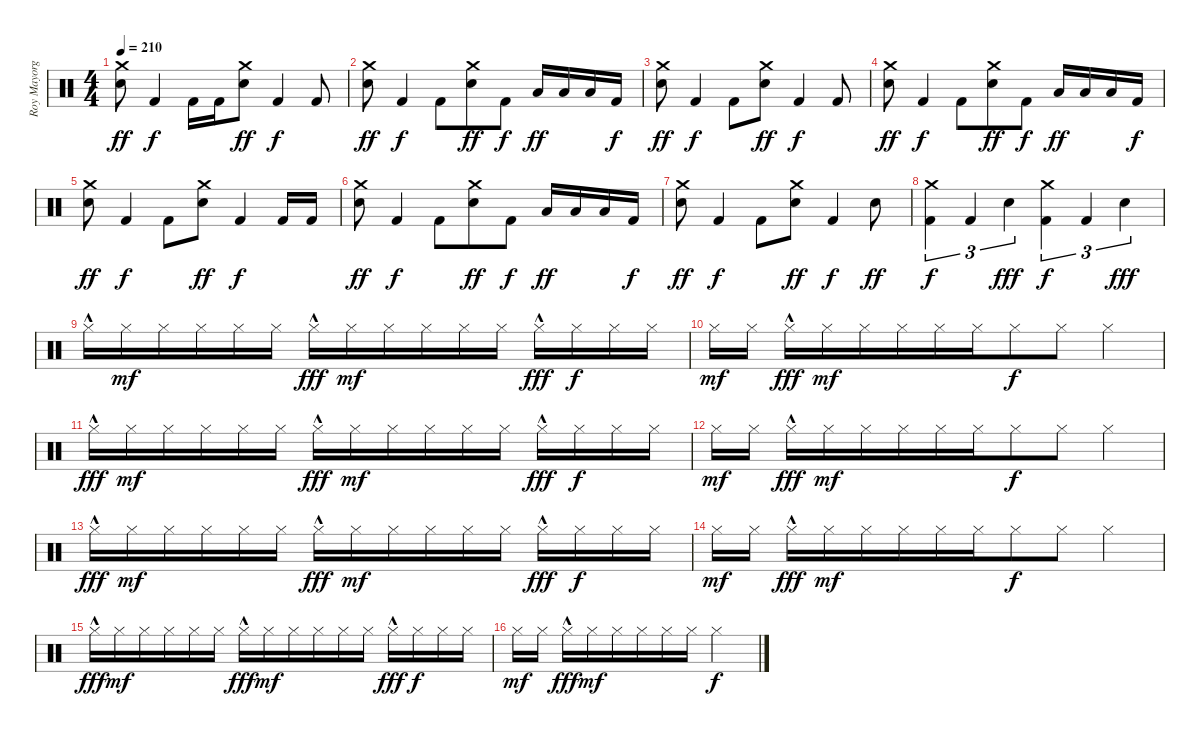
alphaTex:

\track ("Roy Mayorga" "Roy Mayorg") {instrument percussion}
\staff {score}
\articulation defaults
\ts (4 4)
\tempo 210
\clef neutral
\ks c
("Crash medium (hit)" "Electric Snare (hit)").8{dy ff} "Kick (hit) 2".4{dy f} "Kick (hit) 2".16 "Kick (hit) 2".16{beam merge} ("Crash medium (hit)" "Electric Snare (hit)").8{dy ff} "Kick (hit) 2".4{dy f} "Kick (hit) 2".8 |
("Crash medium (hit)" "Electric Snare (hit)").8{dy ff} "Kick (hit) 2".4{dy f} "Kick (hit) 2".8{beam merge} ("Crash medium (hit)" "Electric Snare (hit)").8{dy ff} "Kick (hit) 2".8{dy f} "Low Tom (hit)".16{dy ff} "Low Tom (hit)".16 "Low Floor Tom (hit)".16 "Kick (hit) 2".16{dy f} |
("Crash medium (hit)" "Electric Snare (hit)").8{dy ff} "Kick (hit) 2".4{dy f} "Kick (hit) 2".8{beam merge} ("Crash medium (hit)" "Electric Snare (hit)").8{dy ff} "Kick (hit) 2".4{dy f} "Kick (hit) 2".8 |
("Crash medium (hit)" "Electric Snare (hit)").8{dy ff} "Kick (hit) 2".4{dy f} "Kick (hit) 2".8{beam merge} ("Crash medium (hit)" "Electric Snare (hit)").8{dy ff} "Kick (hit) 2".8{dy f} "Low Tom (hit)".16{dy ff} "Low Tom (hit)".16 "Low Floor Tom (hit)".16 "Kick (hit) 2".16{dy f} |
("Crash medium (hit)" "Electric Snare (hit)").8{dy ff} "Kick (hit) 2".4{dy f} "Kick (hit) 2".8{beam merge} ("Crash medium (hit)" "Electric Snare (hit)").8{dy ff} "Kick (hit) 2".4{dy f} "Kick (hit) 2".16 "Kick (hit) 2".16 |
("Crash medium (hit)" "Electric Snare (hit)").8{dy ff} "Kick (hit) 2".4{dy f} "Kick (hit) 2".8{beam merge} ("Crash medium (hit)" "Electric Snare (hit)").8{dy ff} "Kick (hit) 2".8{dy f} "Low Tom (hit)".16{dy ff} "Low Tom (hit)".16 "Low Floor Tom (hit)".16 "Kick (hit) 2".16{dy f} |
("Crash medium (hit)" "Electric Snare (hit)").8{dy ff} "Kick (hit) 2".4{dy f} "Kick (hit) 2".8{beam merge} ("Crash medium (hit)" "Electric Snare (hit)").8{dy ff} "Kick (hit) 2".4{dy f} "Electric Snare (hit)".8{dy ff} |
("Crash medium (hit)" "Kick (hit) 2").4{tu (3 2) dy f} "Kick (hit) 2".4{tu (3 2)} "Electric Snare (hit)".4{tu (3 2) dy fff} ("Crash medium (hit)" "Kick (hit) 2").4{tu (3 2) dy f} "Kick (hit) 2".4{tu (3 2)} "Electric Snare (hit)".4{tu (3 2) dy fff} |
"Hi-Hat (closed)"{hac}.16 "Hi-Hat (closed)".16{dy mf} "Hi-Hat (closed)".16 "Hi-Hat (closed)".16{beam merge} "Hi-Hat (closed)".16 "Hi-Hat (closed)".16{beam split} "Hi-Hat (closed)"{hac}.16{dy fff} "Hi-Hat (closed)".16{dy mf beam merge} "Hi-Hat (closed)".16 "Hi-Hat (closed)".16 "Hi-Hat (closed)".16 "Hi-Hat (closed)".16{beam split} "Hi-Hat (closed)"{hac}.16{dy fff} "Hi-Hat (closed)".16{dy f} "Hi-Hat (closed)".16 "Hi-Hat (closed)".16 |
"Hi-Hat (closed)".16{dy mf} "Hi-Hat (closed)".16{beam split} "Hi-Hat (closed)"{hac}.16{dy fff} "Hi-Hat (closed)".16{dy mf beam merge} "Hi-Hat (closed)".16 "Hi-Hat (closed)".16 "Hi-Hat (closed)".16 "Hi-Hat (closed)".16{beam merge} "Hi-Hat (closed)".8{dy f} "Hi-Hat (closed)".8 "Hi-Hat (closed)".4 |
"Hi-Hat (closed)"{hac}.16{dy fff} "Hi-Hat (closed)".16{dy mf} "Hi-Hat (closed)".16 "Hi-Hat (closed)".16{beam merge} "Hi-Hat (closed)".16 "Hi-Hat (closed)".16{beam split} "Hi-Hat (closed)"{hac}.16{dy fff} "Hi-Hat (closed)".16{dy mf beam merge} "Hi-Hat (closed)".16 "Hi-Hat (closed)".16 "Hi-Hat (closed)".16 "Hi-Hat (closed)".16{beam split} "Hi-Hat (closed)"{hac}.16{dy fff} "Hi-Hat (closed)".16{dy f} "Hi-Hat (closed)".16 "Hi-Hat (closed)".16 |
"Hi-Hat (closed)".16{dy mf} "Hi-Hat (closed)".16{beam split} "Hi-Hat (closed)"{hac}.16{dy fff} "Hi-Hat (closed)".16{dy mf beam merge} "Hi-Hat (closed)".16 "Hi-Hat (closed)".16 "Hi-Hat (closed)".16 "Hi-Hat (closed)".16{beam merge} "Hi-Hat (closed)".8{dy f} "Hi-Hat (closed)".8 "Hi-Hat (closed)".4 |
"Hi-Hat (closed)"{hac}.16{dy fff} "Hi-Hat (closed)".16{dy mf} "Hi-Hat (closed)".16 "Hi-Hat (closed)".16{beam merge} "Hi-Hat (closed)".16 "Hi-Hat (closed)".16{beam split} "Hi-Hat (closed)"{hac}.16{dy fff} "Hi-Hat (closed)".16{dy mf beam merge} "Hi-Hat (closed)".16 "Hi-Hat (closed)".16 "Hi-Hat (closed)".16 "Hi-Hat (closed)".16{beam split} "Hi-Hat (closed)"{hac}.16{dy fff} "Hi-Hat (closed)".16{dy f} "Hi-Hat (closed)".16 "Hi-Hat (closed)".16 |
"Hi-Hat (closed)".16{dy mf} "Hi-Hat (closed)".16{beam split} "Hi-Hat (closed)"{hac}.16{dy fff} "Hi-Hat (closed)".16{dy mf beam merge} "Hi-Hat (closed)".16 "Hi-Hat (closed)".16 "Hi-Hat (closed)".16 "Hi-Hat (closed)".16{beam merge} "Hi-Hat (closed)".8{dy f} "Hi-Hat (closed)".8 "Hi-Hat (closed)".4 |
"Hi-Hat (closed)"{hac}.16{dy fff} "Hi-Hat (closed)".16{dy mf} "Hi-Hat (closed)".16 "Hi-Hat (closed)".16{beam merge} "Hi-Hat (closed)".16 "Hi-Hat (closed)".16{beam split} "Hi-Hat (closed)"{hac}.16{dy fff} "Hi-Hat (closed)".16{dy mf beam merge} "Hi-Hat (closed)".16 "Hi-Hat (closed)".16 "Hi-Hat (closed)".16 "Hi-Hat (closed)".16{beam split} "Hi-Hat (closed)"{hac}.16{dy fff} "Hi-Hat (closed)".16{dy f} "Hi-Hat (closed)".16 "Hi-Hat (closed)".16 |
"Hi-Hat (closed)".16{dy mf} "Hi-Hat (closed)".16{beam split} "Hi-Hat (closed)"{hac}.16{dy fff} "Hi-Hat (closed)".16{dy mf beam merge} "Hi-Hat (closed)".16 "Hi-Hat (closed)".16 "Hi-Hat (closed)".16 "Hi-Hat (closed)".16 "Hi-Hat (closed)".2{dy f}
